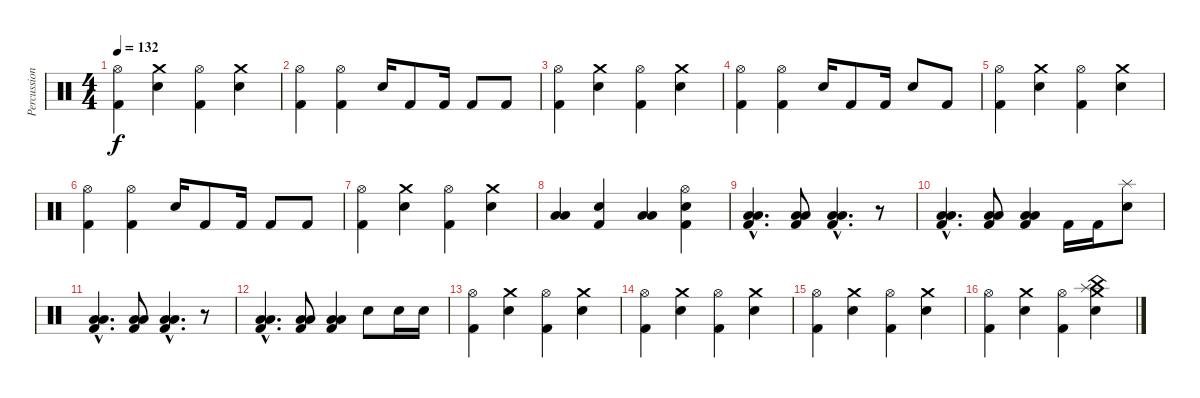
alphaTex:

\track ("Percussioni" "Percussion") {instrument percussion}
\staff {score}
\articulation defaults
\ts (4 4)
\tempo 132
\clef neutral
\ks c
("Hi-Hat (open)" "Kick (hit) 2").4{dy f} ("Crash medium (hit)" "Snare (hit) 2").4 ("Hi-Hat (open)" "Kick (hit) 2").4 ("Crash medium (hit)" "Snare (hit) 2").4 |
("Hi-Hat (open)" "Kick (hit) 2").4 ("Hi-Hat (open)" "Kick (hit) 2").4 "Snare (hit) 2".16 "Kick (hit) 2".8 "Kick (hit) 2".16 "Kick (hit) 2".8 "Kick (hit) 2".8 |
("Hi-Hat (open)" "Kick (hit) 2").4 ("Crash medium (hit)" "Snare (hit) 2").4 ("Hi-Hat (open)" "Kick (hit) 2").4 ("Crash medium (hit)" "Snare (hit) 2").4 |
("Hi-Hat (open)" "Kick (hit) 2").4 ("Hi-Hat (open)" "Kick (hit) 2").4 "Snare (hit) 2".16 "Kick (hit) 2".8 "Kick (hit) 2".16 "Snare (hit) 2".8 "Kick (hit) 2".8 |
("Hi-Hat (open)" "Kick (hit) 2").4 ("Crash medium (hit)" "Snare (hit) 2").4 ("Hi-Hat (open)" "Kick (hit) 2").4 ("Crash medium (hit)" "Snare (hit) 2").4 |
("Hi-Hat (open)" "Kick (hit) 2").4 ("Hi-Hat (open)" "Kick (hit) 2").4 "Snare (hit) 2".16 "Kick (hit) 2".8 "Kick (hit) 2".16 "Kick (hit) 2".8 "Kick (hit) 2".8 |
("Hi-Hat (open)" "Kick (hit) 2").4 ("Crash medium (hit)" "Snare (hit) 2").4 ("Hi-Hat (open)" "Kick (hit) 2").4 ("Crash medium (hit)" "Snare (hit) 2").4 |
("Low Floor Tom (hit)" "Low Floor Tom (hit)").4 ("Kick (hit) 2" "Snare (hit) 2").4 ("Low Floor Tom (hit)" "Low Floor Tom (hit)").4 ("Hi-Hat (open)" "Kick (hit) 2" "Snare (hit) 2").4 |
("Low Floor Tom (hit)"{hac} "Low Floor Tom (hit)"{hac} "Kick (hit) 2"{hac}).4{d} ("Low Floor Tom (hit)" "Low Floor Tom (hit)" "Kick (hit) 2").8 ("Low Floor Tom (hit)"{hac} "Low Floor Tom (hit)"{hac} "Kick (hit) 2"{hac}).4{d} r.8 |
("Low Floor Tom (hit)"{hac} "Low Floor Tom (hit)"{hac} "Kick (hit) 2"{hac}).4{d} ("Low Floor Tom (hit)" "Low Floor Tom (hit)" "Kick (hit) 2").8 ("Low Floor Tom (hit)" "Low Floor Tom (hit)" "Kick (hit) 2").4 "Kick (hit) 2".16 "Kick (hit) 2".16 ("Splash (hit)" "Snare (hit) 2").8 |
("Low Floor Tom (hit)"{hac} "Low Floor Tom (hit)"{hac} "Kick (hit) 2"{hac}).4{d} ("Low Floor Tom (hit)" "Low Floor Tom (hit)" "Kick (hit) 2").8 ("Low Floor Tom (hit)"{hac} "Low Floor Tom (hit)"{hac} "Kick (hit) 2"{hac}).4{d} r.8 |
("Low Floor Tom (hit)"{hac} "Low Floor Tom (hit)"{hac} "Kick (hit) 2"{hac}).4{d} ("Low Floor Tom (hit)" "Low Floor Tom (hit)" "Kick (hit) 2").8 ("Low Floor Tom (hit)" "Low Floor Tom (hit)" "Kick (hit) 2").4 "Snare (hit) 2".8 "Snare (hit) 2".16 "Snare (hit) 2".16 |
("Hi-Hat (open)" "Kick (hit) 2").4 ("Crash medium (hit)" "Snare (hit) 2").4 ("Hi-Hat (open)" "Kick (hit) 2").4 ("Crash medium (hit)" "Snare (hit) 2").4 |
("Hi-Hat (open)" "Kick (hit) 2").4 ("Crash medium (hit)" "Snare (hit) 2").4 ("Hi-Hat (open)" "Kick (hit) 2").4 ("Crash medium (hit)" "Snare (hit) 2").4 |
("Hi-Hat (open)" "Kick (hit) 2").4 ("Crash medium (hit)" "Snare (hit) 2").4 ("Hi-Hat (open)" "Kick (hit) 2").4 ("Crash medium (hit)" "Snare (hit) 2").4 |
("Hi-Hat (open)" "Kick (hit) 2").4 ("Crash medium (hit)" "Snare (hit) 2").4 ("Hi-Hat (open)" "Kick (hit) 2").4 ("Splash (hit)" "Crash medium (hit)" "Snare (hit) 2" "China (hit)").4
